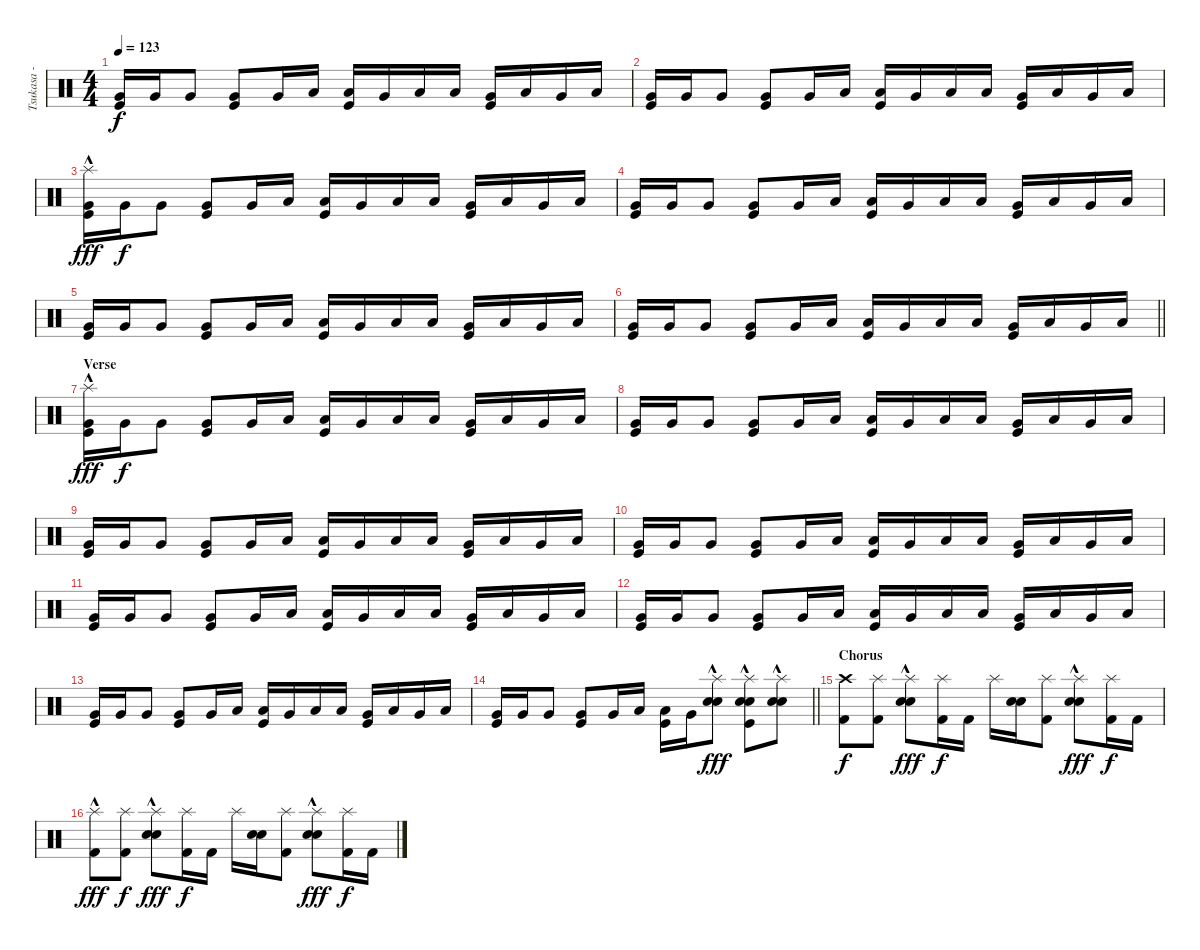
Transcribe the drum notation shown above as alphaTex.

\track ("Tsukasa - Drums" "Tsukasa - ") {instrument percussion}
\staff {score}
\articulation defaults
\ts (4 4)
\tempo 123
\clef neutral
\ks c
("Very Low Tom (hit)" "Kick (hit)").16{dy f} "Very Low Tom (hit)".16 "Very Low Tom (hit)".8 ("Very Low Tom (hit)" "Kick (hit)").8 "Very Low Tom (hit)".16 "Low Tom (hit)".16 ("Low Tom (hit)" "Kick (hit)").16 "Very Low Tom (hit)".16 "Low Floor Tom (hit)".16 "Low Floor Tom (hit)".16 ("Very Low Tom (hit)" "Kick (hit)").16 "Low Floor Tom (hit)".16 "Very Low Tom (hit)".16 "Low Floor Tom (hit)".16 |
("Very Low Tom (hit)" "Kick (hit)").16 "Very Low Tom (hit)".16 "Very Low Tom (hit)".8 ("Very Low Tom (hit)" "Kick (hit)").8 "Very Low Tom (hit)".16 "Low Tom (hit)".16 ("Low Tom (hit)" "Kick (hit)").16 "Very Low Tom (hit)".16 "Low Floor Tom (hit)".16 "Low Floor Tom (hit)".16 ("Very Low Tom (hit)" "Kick (hit)").16 "Low Floor Tom (hit)".16 "Very Low Tom (hit)".16 "Low Floor Tom (hit)".16 |
("Splash (hit)"{hac} "Very Low Tom (hit)" "Kick (hit)").16{dy fff} "Very Low Tom (hit)".16{dy f} "Very Low Tom (hit)".8 ("Very Low Tom (hit)" "Kick (hit)").8 "Very Low Tom (hit)".16 "Low Tom (hit)".16 ("Low Tom (hit)" "Kick (hit)").16 "Very Low Tom (hit)".16 "Low Floor Tom (hit)".16 "Low Floor Tom (hit)".16 ("Very Low Tom (hit)" "Kick (hit)").16 "Low Floor Tom (hit)".16 "Very Low Tom (hit)".16 "Low Floor Tom (hit)".16 |
("Very Low Tom (hit)" "Kick (hit)").16 "Very Low Tom (hit)".16 "Very Low Tom (hit)".8 ("Very Low Tom (hit)" "Kick (hit)").8 "Very Low Tom (hit)".16 "Low Tom (hit)".16 ("Low Tom (hit)" "Kick (hit)").16 "Very Low Tom (hit)".16 "Low Floor Tom (hit)".16 "Low Floor Tom (hit)".16 ("Very Low Tom (hit)" "Kick (hit)").16 "Low Floor Tom (hit)".16 "Very Low Tom (hit)".16 "Low Floor Tom (hit)".16 |
("Very Low Tom (hit)" "Kick (hit)").16 "Very Low Tom (hit)".16 "Very Low Tom (hit)".8 ("Very Low Tom (hit)" "Kick (hit)").8 "Very Low Tom (hit)".16 "Low Tom (hit)".16 ("Low Tom (hit)" "Kick (hit)").16 "Very Low Tom (hit)".16 "Low Floor Tom (hit)".16 "Low Floor Tom (hit)".16 ("Very Low Tom (hit)" "Kick (hit)").16 "Low Floor Tom (hit)".16 "Very Low Tom (hit)".16 "Low Floor Tom (hit)".16 |
\barLineRight lightlight
("Very Low Tom (hit)" "Kick (hit)").16 "Very Low Tom (hit)".16 "Very Low Tom (hit)".8 ("Very Low Tom (hit)" "Kick (hit)").8 "Very Low Tom (hit)".16 "Low Tom (hit)".16 ("Low Tom (hit)" "Kick (hit)").16 "Very Low Tom (hit)".16 "Low Floor Tom (hit)".16 "Low Floor Tom (hit)".16 ("Very Low Tom (hit)" "Kick (hit)").16 "Low Floor Tom (hit)".16 "Very Low Tom (hit)".16 "Low Floor Tom (hit)".16 |
\section ("" "Verse")
("Splash (hit)"{hac} "Very Low Tom (hit)" "Kick (hit)").16{dy fff} "Very Low Tom (hit)".16{dy f} "Very Low Tom (hit)".8 ("Very Low Tom (hit)" "Kick (hit)").8 "Very Low Tom (hit)".16 "Low Tom (hit)".16 ("Low Tom (hit)" "Kick (hit)").16 "Very Low Tom (hit)".16 "Low Floor Tom (hit)".16 "Low Floor Tom (hit)".16 ("Very Low Tom (hit)" "Kick (hit)").16 "Low Floor Tom (hit)".16 "Very Low Tom (hit)".16 "Low Floor Tom (hit)".16 |
("Very Low Tom (hit)" "Kick (hit)").16 "Very Low Tom (hit)".16 "Very Low Tom (hit)".8 ("Very Low Tom (hit)" "Kick (hit)").8 "Very Low Tom (hit)".16 "Low Tom (hit)".16 ("Low Tom (hit)" "Kick (hit)").16 "Very Low Tom (hit)".16 "Low Floor Tom (hit)".16 "Low Floor Tom (hit)".16 ("Very Low Tom (hit)" "Kick (hit)").16 "Low Floor Tom (hit)".16 "Very Low Tom (hit)".16 "Low Floor Tom (hit)".16 |
("Very Low Tom (hit)" "Kick (hit)").16 "Very Low Tom (hit)".16 "Very Low Tom (hit)".8 ("Very Low Tom (hit)" "Kick (hit)").8 "Very Low Tom (hit)".16 "Low Tom (hit)".16 ("Low Tom (hit)" "Kick (hit)").16 "Very Low Tom (hit)".16 "Low Floor Tom (hit)".16 "Low Floor Tom (hit)".16 ("Very Low Tom (hit)" "Kick (hit)").16 "Low Floor Tom (hit)".16 "Very Low Tom (hit)".16 "Low Floor Tom (hit)".16 |
("Very Low Tom (hit)" "Kick (hit)").16 "Very Low Tom (hit)".16 "Very Low Tom (hit)".8 ("Very Low Tom (hit)" "Kick (hit)").8 "Very Low Tom (hit)".16 "Low Tom (hit)".16 ("Low Tom (hit)" "Kick (hit)").16 "Very Low Tom (hit)".16 "Low Floor Tom (hit)".16 "Low Floor Tom (hit)".16 ("Very Low Tom (hit)" "Kick (hit)").16 "Low Floor Tom (hit)".16 "Very Low Tom (hit)".16 "Low Floor Tom (hit)".16 |
("Very Low Tom (hit)" "Kick (hit)").16 "Very Low Tom (hit)".16 "Very Low Tom (hit)".8 ("Very Low Tom (hit)" "Kick (hit)").8 "Very Low Tom (hit)".16 "Low Tom (hit)".16 ("Low Tom (hit)" "Kick (hit)").16 "Very Low Tom (hit)".16 "Low Floor Tom (hit)".16 "Low Floor Tom (hit)".16 ("Very Low Tom (hit)" "Kick (hit)").16 "Low Floor Tom (hit)".16 "Very Low Tom (hit)".16 "Low Floor Tom (hit)".16 |
("Very Low Tom (hit)" "Kick (hit)").16 "Very Low Tom (hit)".16 "Very Low Tom (hit)".8 ("Very Low Tom (hit)" "Kick (hit)").8 "Very Low Tom (hit)".16 "Low Tom (hit)".16 ("Low Tom (hit)" "Kick (hit)").16 "Very Low Tom (hit)".16 "Low Floor Tom (hit)".16 "Low Floor Tom (hit)".16 ("Very Low Tom (hit)" "Kick (hit)").16 "Low Floor Tom (hit)".16 "Very Low Tom (hit)".16 "Low Floor Tom (hit)".16 |
("Very Low Tom (hit)" "Kick (hit)").16 "Very Low Tom (hit)".16 "Very Low Tom (hit)".8 ("Very Low Tom (hit)" "Kick (hit)").8 "Very Low Tom (hit)".16 "Low Tom (hit)".16 ("Low Tom (hit)" "Kick (hit)").16 "Very Low Tom (hit)".16 "Low Floor Tom (hit)".16 "Low Floor Tom (hit)".16 ("Very Low Tom (hit)" "Kick (hit)").16 "Low Floor Tom (hit)".16 "Very Low Tom (hit)".16 "Low Floor Tom (hit)".16 |
\barLineRight lightlight
("Very Low Tom (hit)" "Kick (hit)").16 "Very Low Tom (hit)".16 "Very Low Tom (hit)".8 ("Very Low Tom (hit)" "Kick (hit)").8 "Very Low Tom (hit)".16 "Low Tom (hit)".16 ("Low Tom (hit)" "Kick (hit)").16 "Very Low Tom (hit)".16 ("Splash (hit)" "Electric Snare (hit)"{hac} "Snare (hit) 2").8{dy fff} ("Splash (hit)" "Electric Snare (hit)"{hac} "Snare (hit) 2" "Kick (hit)").8 ("Splash (hit)" "Electric Snare (hit)"{hac} "Snare (hit) 2").8 |
\section ("" "Chorus")
("Crash high (hit)" "Kick (hit) 2").8{dy f} ("Splash (hit)" "Kick (hit) 2").8 ("Splash (hit)" "Electric Snare (hit)"{hac} "Snare (hit) 2").8{dy fff} ("Splash (hit)" "Kick (hit) 2").16{dy f} "Kick (hit) 2".16 "Splash (hit)".16 ("Electric Snare (hit)" "Snare (hit) 2").16 ("Splash (hit)" "Kick (hit) 2").8 ("Splash (hit)" "Electric Snare (hit)"{hac} "Snare (hit) 2").8{dy fff} ("Splash (hit)" "Kick (hit) 2").16{dy f} "Kick (hit) 2".16 |
("Splash (hit)"{hac} "Kick (hit) 2").8{dy fff} ("Splash (hit)" "Kick (hit) 2").8{dy f} ("Splash (hit)" "Electric Snare (hit)"{hac} "Snare (hit) 2").8{dy fff} ("Splash (hit)" "Kick (hit) 2").16{dy f} "Kick (hit) 2".16 "Splash (hit)".16 ("Electric Snare (hit)" "Snare (hit) 2").16 ("Splash (hit)" "Kick (hit) 2").8 ("Splash (hit)" "Electric Snare (hit)"{hac} "Snare (hit) 2").8{dy fff} ("Splash (hit)" "Kick (hit) 2").16{dy f} "Kick (hit) 2".16
